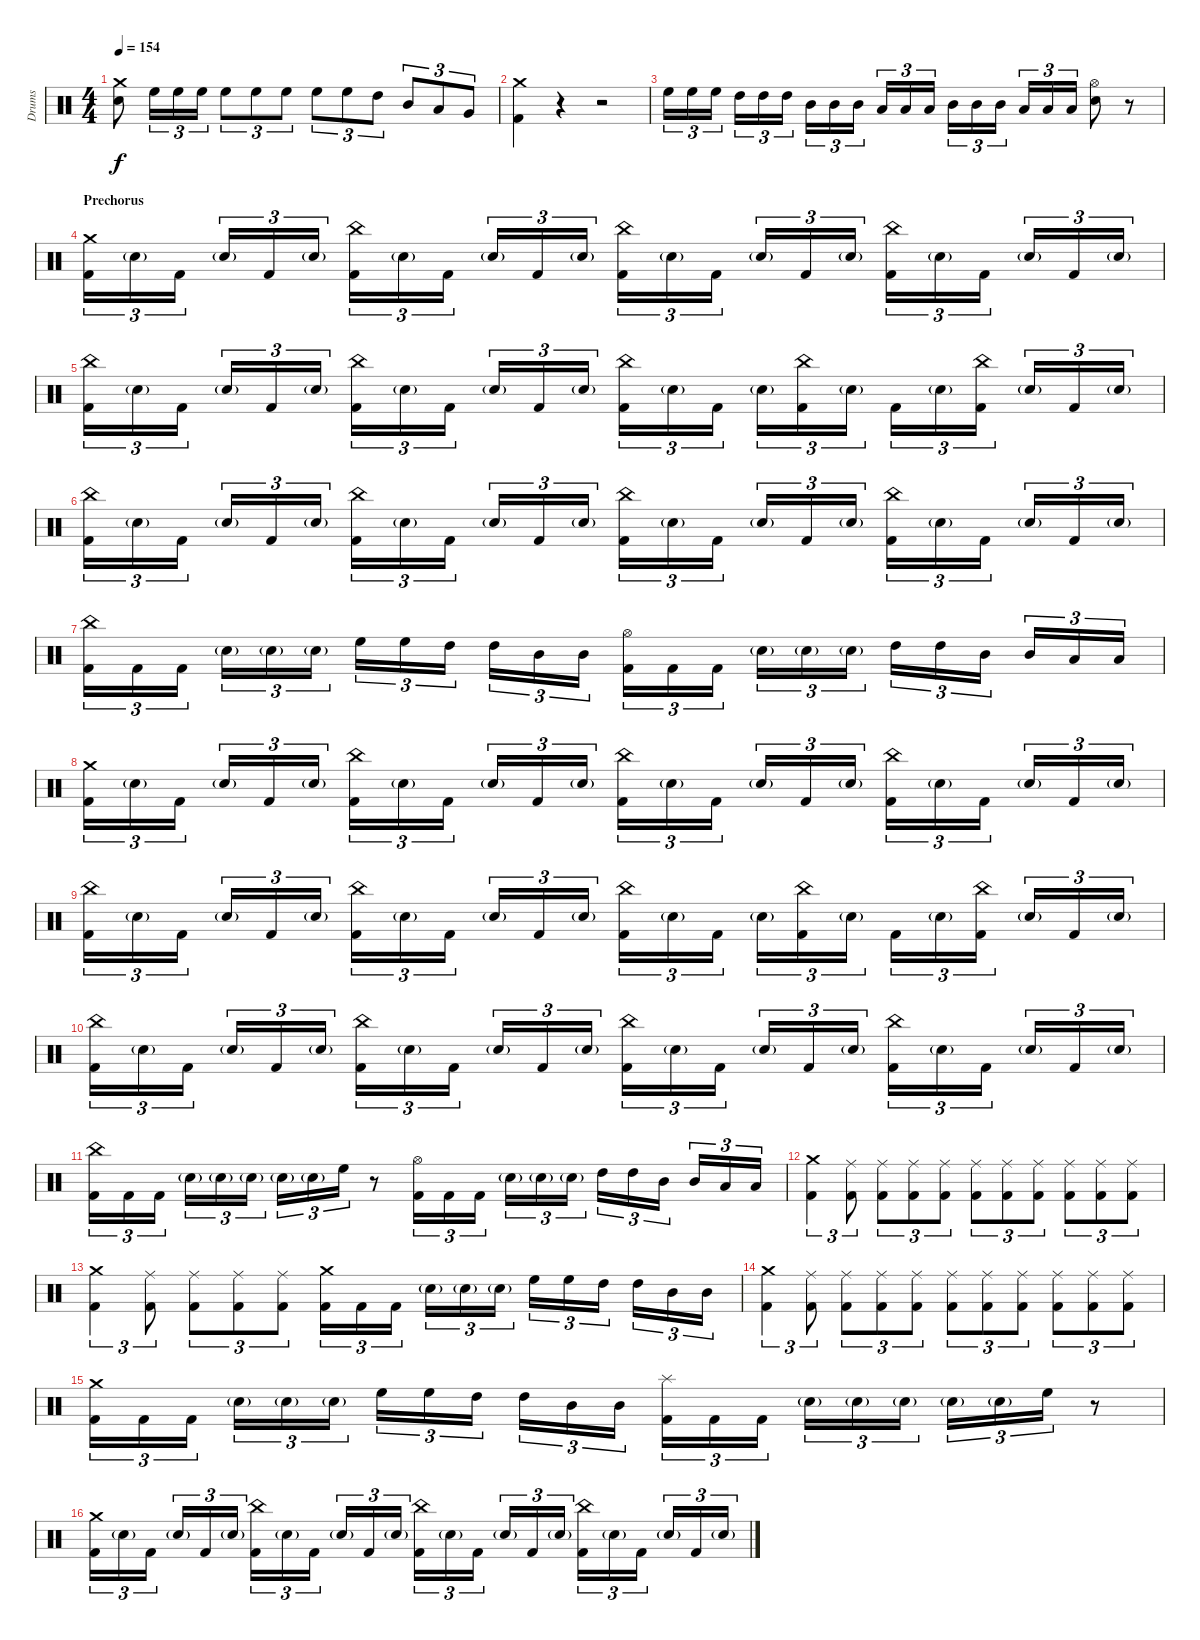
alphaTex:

\track ("Drums" "Drums") {instrument percussion}
\staff {score}
\articulation defaults
\ts (4 4)
\tempo 154
\clef neutral
\ks c
("Crash medium (hit)" "Snare (hit) 2").8{dy f} "High Floor Tom (hit)".16{tu (3 2)} "High Floor Tom (hit)".16{tu (3 2)} "High Floor Tom (hit)".16{tu (3 2)} "High Floor Tom (hit)".8{tu (3 2)} "High Floor Tom (hit)".8{tu (3 2)} "High Floor Tom (hit)".8{tu (3 2)} "High Floor Tom (hit)".8{tu (3 2)} "High Floor Tom (hit)".8{tu (3 2)} "High Tom (hit)".8{tu (3 2)} "Mid Tom (hit)".8{tu (3 2)} "Low Tom (hit)".8{tu (3 2)} "Very Low Tom (hit)".8{tu (3 2)} |
("Crash medium (hit)" "Kick (hit) 2").4 r.4 r.2 |
"High Floor Tom (hit)".16{tu (3 2)} "High Floor Tom (hit)".16{tu (3 2)} "High Floor Tom (hit)".16{tu (3 2)} "High Tom (hit)".16{tu (3 2)} "High Tom (hit)".16{tu (3 2)} "High Tom (hit)".16{tu (3 2)} "Mid Tom (hit)".16{tu (3 2)} "Mid Tom (hit)".16{tu (3 2)} "Mid Tom (hit)".16{tu (3 2)} "Low Tom (hit)".16{tu (3 2)} "Low Tom (hit)".16{tu (3 2)} "Low Tom (hit)".16{tu (3 2)} "Mid Tom (hit)".16{tu (3 2)} "Mid Tom (hit)".16{tu (3 2)} "Mid Tom (hit)".16{tu (3 2)} "Low Tom (hit)".16{tu (3 2)} "Low Tom (hit)".16{tu (3 2)} "Low Tom (hit)".16{tu (3 2)} ("Hi-Hat (open)" "Snare (hit) 2").8 r.8 |
\section ("" "Prechorus")
("Crash medium (hit)" "Kick (hit) 2").16{tu (3 2)} "Snare (hit) 2"{g}.16{tu (3 2)} "Kick (hit) 2".16{tu (3 2)} "Snare (hit) 2"{g}.16{tu (3 2)} "Kick (hit) 2".16{tu (3 2)} "Snare (hit) 2"{g}.16{tu (3 2)} ("China (hit)" "Kick (hit) 2").16{tu (3 2)} "Snare (hit) 2"{g}.16{tu (3 2)} "Kick (hit) 2".16{tu (3 2)} "Snare (hit) 2"{g}.16{tu (3 2)} "Kick (hit) 2".16{tu (3 2)} "Snare (hit) 2"{g}.16{tu (3 2)} ("China (hit)" "Kick (hit) 2").16{tu (3 2)} "Snare (hit) 2"{g}.16{tu (3 2)} "Kick (hit) 2".16{tu (3 2)} "Snare (hit) 2"{g}.16{tu (3 2)} "Kick (hit) 2".16{tu (3 2)} "Snare (hit) 2"{g}.16{tu (3 2)} ("China (hit)" "Kick (hit) 2").16{tu (3 2)} "Snare (hit) 2"{g}.16{tu (3 2)} "Kick (hit) 2".16{tu (3 2)} "Snare (hit) 2"{g}.16{tu (3 2)} "Kick (hit) 2".16{tu (3 2)} "Snare (hit) 2"{g}.16{tu (3 2)} |
("China (hit)" "Kick (hit) 2").16{tu (3 2)} "Snare (hit) 2"{g}.16{tu (3 2)} "Kick (hit) 2".16{tu (3 2)} "Snare (hit) 2"{g}.16{tu (3 2)} "Kick (hit) 2".16{tu (3 2)} "Snare (hit) 2"{g}.16{tu (3 2)} ("China (hit)" "Kick (hit) 2").16{tu (3 2)} "Snare (hit) 2"{g}.16{tu (3 2)} "Kick (hit) 2".16{tu (3 2)} "Snare (hit) 2"{g}.16{tu (3 2)} "Kick (hit) 2".16{tu (3 2)} "Snare (hit) 2"{g}.16{tu (3 2)} ("China (hit)" "Kick (hit) 2").16{tu (3 2)} "Snare (hit) 2"{g}.16{tu (3 2)} "Kick (hit) 2".16{tu (3 2)} "Snare (hit) 2"{g}.16{tu (3 2)} ("China (hit)" "Kick (hit) 2").16{tu (3 2)} "Snare (hit) 2"{g}.16{tu (3 2)} "Kick (hit) 2".16{tu (3 2)} "Snare (hit) 2"{g}.16{tu (3 2)} ("China (hit)" "Kick (hit) 2").16{tu (3 2)} "Snare (hit) 2"{g}.16{tu (3 2)} "Kick (hit) 2".16{tu (3 2)} "Snare (hit) 2"{g}.16{tu (3 2)} |
("China (hit)" "Kick (hit) 2").16{tu (3 2)} "Snare (hit) 2"{g}.16{tu (3 2)} "Kick (hit) 2".16{tu (3 2)} "Snare (hit) 2"{g}.16{tu (3 2)} "Kick (hit) 2".16{tu (3 2)} "Snare (hit) 2"{g}.16{tu (3 2)} ("China (hit)" "Kick (hit) 2").16{tu (3 2)} "Snare (hit) 2"{g}.16{tu (3 2)} "Kick (hit) 2".16{tu (3 2)} "Snare (hit) 2"{g}.16{tu (3 2)} "Kick (hit) 2".16{tu (3 2)} "Snare (hit) 2"{g}.16{tu (3 2)} ("China (hit)" "Kick (hit) 2").16{tu (3 2)} "Snare (hit) 2"{g}.16{tu (3 2)} "Kick (hit) 2".16{tu (3 2)} "Snare (hit) 2"{g}.16{tu (3 2)} "Kick (hit) 2".16{tu (3 2)} "Snare (hit) 2"{g}.16{tu (3 2)} ("China (hit)" "Kick (hit) 2").16{tu (3 2)} "Snare (hit) 2"{g}.16{tu (3 2)} "Kick (hit) 2".16{tu (3 2)} "Snare (hit) 2"{g}.16{tu (3 2)} "Kick (hit) 2".16{tu (3 2)} "Snare (hit) 2"{g}.16{tu (3 2)} |
("China (hit)" "Kick (hit) 2").16{tu (3 2)} "Kick (hit) 2".16{tu (3 2)} "Kick (hit) 2".16{tu (3 2)} "Snare (hit) 2"{g}.16{tu (3 2)} "Snare (hit) 2"{g}.16{tu (3 2)} "Snare (hit) 2"{g}.16{tu (3 2)} "High Floor Tom (hit)".16{tu (3 2)} "High Floor Tom (hit)".16{tu (3 2)} "High Tom (hit)".16{tu (3 2)} "High Tom (hit)".16{tu (3 2)} "Mid Tom (hit)".16{tu (3 2)} "Mid Tom (hit)".16{tu (3 2)} ("Hi-Hat (open)" "Kick (hit) 2").16{tu (3 2)} "Kick (hit) 2".16{tu (3 2)} "Kick (hit) 2".16{tu (3 2)} "Snare (hit) 2"{g}.16{tu (3 2)} "Snare (hit) 2"{g}.16{tu (3 2)} "Snare (hit) 2"{g}.16{tu (3 2)} "High Tom (hit)".16{tu (3 2)} "High Tom (hit)".16{tu (3 2)} "Mid Tom (hit)".16{tu (3 2)} "Mid Tom (hit)".16{tu (3 2)} "Low Tom (hit)".16{tu (3 2)} "Low Tom (hit)".16{tu (3 2)} |
("Crash medium (hit)" "Kick (hit) 2").16{tu (3 2)} "Snare (hit) 2"{g}.16{tu (3 2)} "Kick (hit) 2".16{tu (3 2)} "Snare (hit) 2"{g}.16{tu (3 2)} "Kick (hit) 2".16{tu (3 2)} "Snare (hit) 2"{g}.16{tu (3 2)} ("China (hit)" "Kick (hit) 2").16{tu (3 2)} "Snare (hit) 2"{g}.16{tu (3 2)} "Kick (hit) 2".16{tu (3 2)} "Snare (hit) 2"{g}.16{tu (3 2)} "Kick (hit) 2".16{tu (3 2)} "Snare (hit) 2"{g}.16{tu (3 2)} ("China (hit)" "Kick (hit) 2").16{tu (3 2)} "Snare (hit) 2"{g}.16{tu (3 2)} "Kick (hit) 2".16{tu (3 2)} "Snare (hit) 2"{g}.16{tu (3 2)} "Kick (hit) 2".16{tu (3 2)} "Snare (hit) 2"{g}.16{tu (3 2)} ("China (hit)" "Kick (hit) 2").16{tu (3 2)} "Snare (hit) 2"{g}.16{tu (3 2)} "Kick (hit) 2".16{tu (3 2)} "Snare (hit) 2"{g}.16{tu (3 2)} "Kick (hit) 2".16{tu (3 2)} "Snare (hit) 2"{g}.16{tu (3 2)} |
("China (hit)" "Kick (hit) 2").16{tu (3 2)} "Snare (hit) 2"{g}.16{tu (3 2)} "Kick (hit) 2".16{tu (3 2)} "Snare (hit) 2"{g}.16{tu (3 2)} "Kick (hit) 2".16{tu (3 2)} "Snare (hit) 2"{g}.16{tu (3 2)} ("China (hit)" "Kick (hit) 2").16{tu (3 2)} "Snare (hit) 2"{g}.16{tu (3 2)} "Kick (hit) 2".16{tu (3 2)} "Snare (hit) 2"{g}.16{tu (3 2)} "Kick (hit) 2".16{tu (3 2)} "Snare (hit) 2"{g}.16{tu (3 2)} ("China (hit)" "Kick (hit) 2").16{tu (3 2)} "Snare (hit) 2"{g}.16{tu (3 2)} "Kick (hit) 2".16{tu (3 2)} "Snare (hit) 2"{g}.16{tu (3 2)} ("China (hit)" "Kick (hit) 2").16{tu (3 2)} "Snare (hit) 2"{g}.16{tu (3 2)} "Kick (hit) 2".16{tu (3 2)} "Snare (hit) 2"{g}.16{tu (3 2)} ("China (hit)" "Kick (hit) 2").16{tu (3 2)} "Snare (hit) 2"{g}.16{tu (3 2)} "Kick (hit) 2".16{tu (3 2)} "Snare (hit) 2"{g}.16{tu (3 2)} |
("China (hit)" "Kick (hit) 2").16{tu (3 2)} "Snare (hit) 2"{g}.16{tu (3 2)} "Kick (hit) 2".16{tu (3 2)} "Snare (hit) 2"{g}.16{tu (3 2)} "Kick (hit) 2".16{tu (3 2)} "Snare (hit) 2"{g}.16{tu (3 2)} ("China (hit)" "Kick (hit) 2").16{tu (3 2)} "Snare (hit) 2"{g}.16{tu (3 2)} "Kick (hit) 2".16{tu (3 2)} "Snare (hit) 2"{g}.16{tu (3 2)} "Kick (hit) 2".16{tu (3 2)} "Snare (hit) 2"{g}.16{tu (3 2)} ("China (hit)" "Kick (hit) 2").16{tu (3 2)} "Snare (hit) 2"{g}.16{tu (3 2)} "Kick (hit) 2".16{tu (3 2)} "Snare (hit) 2"{g}.16{tu (3 2)} "Kick (hit) 2".16{tu (3 2)} "Snare (hit) 2"{g}.16{tu (3 2)} ("China (hit)" "Kick (hit) 2").16{tu (3 2)} "Snare (hit) 2"{g}.16{tu (3 2)} "Kick (hit) 2".16{tu (3 2)} "Snare (hit) 2"{g}.16{tu (3 2)} "Kick (hit) 2".16{tu (3 2)} "Snare (hit) 2"{g}.16{tu (3 2)} |
("China (hit)" "Kick (hit) 2").16{tu (3 2)} "Kick (hit) 2".16{tu (3 2)} "Kick (hit) 2".16{tu (3 2)} "Snare (hit) 2"{g}.16{tu (3 2)} "Snare (hit) 2"{g}.16{tu (3 2)} "Snare (hit) 2"{g}.16{tu (3 2)} "Snare (hit) 2"{g}.16{tu (3 2)} "Snare (hit) 2"{g}.16{tu (3 2)} "High Floor Tom (hit)".16{tu (3 2)} r.8 ("Hi-Hat (open)" "Kick (hit) 2").16{tu (3 2)} "Kick (hit) 2".16{tu (3 2)} "Kick (hit) 2".16{tu (3 2)} "Snare (hit) 2"{g}.16{tu (3 2)} "Snare (hit) 2"{g}.16{tu (3 2)} "Snare (hit) 2"{g}.16{tu (3 2)} "High Tom (hit)".16{tu (3 2)} "High Tom (hit)".16{tu (3 2)} "Mid Tom (hit)".16{tu (3 2)} "Mid Tom (hit)".16{tu (3 2)} "Low Tom (hit)".16{tu (3 2)} "Low Tom (hit)".16{tu (3 2)} |
("Crash medium (hit)" "Kick (hit) 2").4{tu (3 2)} ("Ride (middle)" "Kick (hit) 2").8{tu (3 2)} ("Ride (middle)" "Kick (hit) 2").8{tu (3 2)} ("Ride (middle)" "Kick (hit) 2").8{tu (3 2)} ("Ride (middle)" "Kick (hit) 2").8{tu (3 2)} ("Ride (middle)" "Kick (hit) 2").8{tu (3 2)} ("Ride (middle)" "Kick (hit) 2").8{tu (3 2)} ("Ride (middle)" "Kick (hit) 2").8{tu (3 2)} ("Ride (middle)" "Kick (hit) 2").8{tu (3 2)} ("Ride (middle)" "Kick (hit) 2").8{tu (3 2)} ("Ride (middle)" "Kick (hit) 2").8{tu (3 2)} |
("Crash medium (hit)" "Kick (hit) 2").4{tu (3 2)} ("Ride (middle)" "Kick (hit) 2").8{tu (3 2)} ("Ride (middle)" "Kick (hit) 2").8{tu (3 2)} ("Ride (middle)" "Kick (hit) 2").8{tu (3 2)} ("Ride (middle)" "Kick (hit) 2").8{tu (3 2)} ("Crash medium (hit)" "Kick (hit) 2").16{tu (3 2)} "Kick (hit) 2".16{tu (3 2)} "Kick (hit) 2".16{tu (3 2)} "Snare (hit) 2"{g}.16{tu (3 2)} "Snare (hit) 2"{g}.16{tu (3 2)} "Snare (hit) 2"{g}.16{tu (3 2)} "High Floor Tom (hit)".16{tu (3 2)} "High Floor Tom (hit)".16{tu (3 2)} "High Tom (hit)".16{tu (3 2)} "High Tom (hit)".16{tu (3 2)} "Mid Tom (hit)".16{tu (3 2)} "Mid Tom (hit)".16{tu (3 2)} |
("Crash medium (hit)" "Kick (hit) 2").4{tu (3 2)} ("Ride (middle)" "Kick (hit) 2").8{tu (3 2)} ("Ride (middle)" "Kick (hit) 2").8{tu (3 2)} ("Ride (middle)" "Kick (hit) 2").8{tu (3 2)} ("Ride (middle)" "Kick (hit) 2").8{tu (3 2)} ("Ride (middle)" "Kick (hit) 2").8{tu (3 2)} ("Ride (middle)" "Kick (hit) 2").8{tu (3 2)} ("Ride (middle)" "Kick (hit) 2").8{tu (3 2)} ("Ride (middle)" "Kick (hit) 2").8{tu (3 2)} ("Ride (middle)" "Kick (hit) 2").8{tu (3 2)} ("Ride (middle)" "Kick (hit) 2").8{tu (3 2)} |
("Crash medium (hit)" "Kick (hit) 2").16{tu (3 2)} "Kick (hit) 2".16{tu (3 2)} "Kick (hit) 2".16{tu (3 2)} "Snare (hit) 2"{g}.16{tu (3 2)} "Snare (hit) 2"{g}.16{tu (3 2)} "Snare (hit) 2"{g}.16{tu (3 2)} "High Floor Tom (hit)".16{tu (3 2)} "High Floor Tom (hit)".16{tu (3 2)} "High Tom (hit)".16{tu (3 2)} "High Tom (hit)".16{tu (3 2)} "Mid Tom (hit)".16{tu (3 2)} "Mid Tom (hit)".16{tu (3 2)} ("Splash (hit)" "Kick (hit) 2").16{tu (3 2)} "Kick (hit) 2".16{tu (3 2)} "Kick (hit) 2".16{tu (3 2)} "Snare (hit) 2"{g}.16{tu (3 2)} "Snare (hit) 2"{g}.16{tu (3 2)} "Snare (hit) 2"{g}.16{tu (3 2)} "Snare (hit) 2"{g}.16{tu (3 2)} "Snare (hit) 2"{g}.16{tu (3 2)} "High Floor Tom (hit)".16{tu (3 2)} r.8 |
("Crash medium (hit)" "Kick (hit) 2").16{tu (3 2)} "Snare (hit) 2"{g}.16{tu (3 2)} "Kick (hit) 2".16{tu (3 2)} "Snare (hit) 2"{g}.16{tu (3 2)} "Kick (hit) 2".16{tu (3 2)} "Snare (hit) 2"{g}.16{tu (3 2)} ("China (hit)" "Kick (hit) 2").16{tu (3 2)} "Snare (hit) 2"{g}.16{tu (3 2)} "Kick (hit) 2".16{tu (3 2)} "Snare (hit) 2"{g}.16{tu (3 2)} "Kick (hit) 2".16{tu (3 2)} "Snare (hit) 2"{g}.16{tu (3 2)} ("China (hit)" "Kick (hit) 2").16{tu (3 2)} "Snare (hit) 2"{g}.16{tu (3 2)} "Kick (hit) 2".16{tu (3 2)} "Snare (hit) 2"{g}.16{tu (3 2)} "Kick (hit) 2".16{tu (3 2)} "Snare (hit) 2"{g}.16{tu (3 2)} ("China (hit)" "Kick (hit) 2").16{tu (3 2)} "Snare (hit) 2"{g}.16{tu (3 2)} "Kick (hit) 2".16{tu (3 2)} "Snare (hit) 2"{g}.16{tu (3 2)} "Kick (hit) 2".16{tu (3 2)} "Snare (hit) 2"{g}.16{tu (3 2)}
